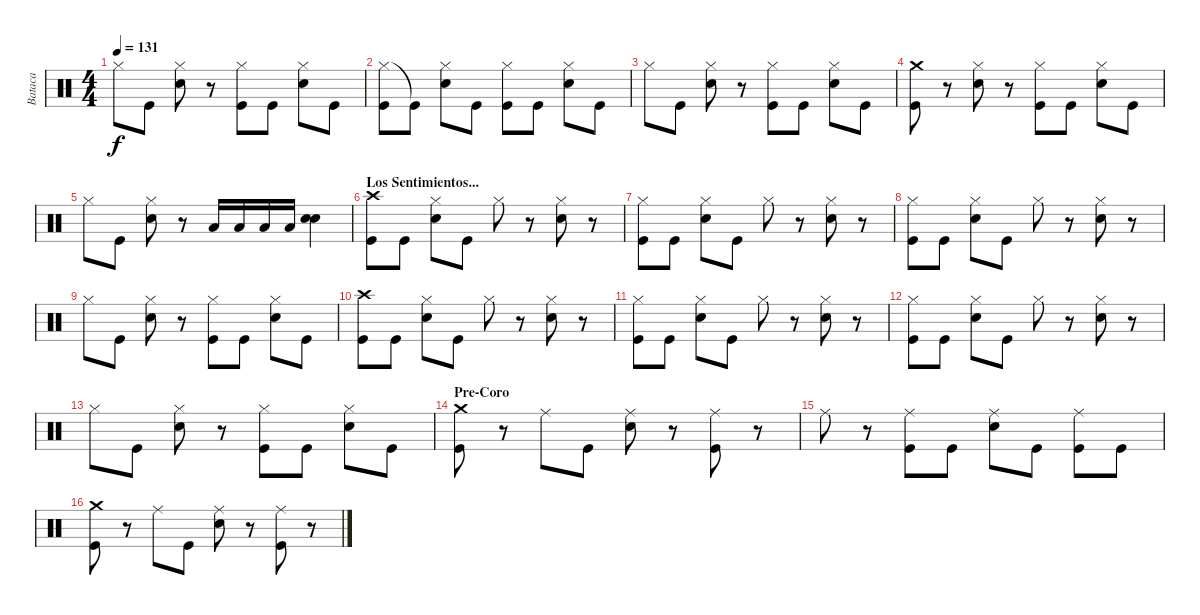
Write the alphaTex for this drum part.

\track ("Bataca" "Bataca") {instrument percussion}
\staff {score}
\articulation defaults
\ts (4 4)
\tempo 131
\clef neutral
\ks c "Hi-Hat (closed)".8{dy f} "Kick (hit)".8
("Hi-Hat (closed)" "Snare (hit) 2").8 r.8 ("Hi-Hat (closed)" "Kick (hit)").8 "Kick (hit)".8 ("Hi-Hat (closed)" "Snare (hit) 2").8 "Kick (hit)".8 |
("Hi-Hat (closed)" "Kick (hit)").8 "Kick (hit)"{t}.8 ("Hi-Hat (closed)" "Snare (hit) 2").8 "Kick (hit)".8 ("Hi-Hat (closed)" "Kick (hit)").8 "Kick (hit)".8 ("Hi-Hat (closed)" "Snare (hit) 2").8 "Kick (hit)".8 |
"Hi-Hat (closed)".8 "Kick (hit)".8 ("Hi-Hat (closed)" "Snare (hit) 2").8 r.8 ("Hi-Hat (closed)" "Kick (hit)").8 "Kick (hit)".8 ("Hi-Hat (closed)" "Snare (hit) 2").8 "Kick (hit)".8 |
("Crash medium (hit)" "Kick (hit)").8 r.8 ("Hi-Hat (closed)" "Snare (hit) 2").8 r.8 ("Hi-Hat (closed)" "Kick (hit)").8 "Kick (hit)".8 ("Hi-Hat (closed)" "Snare (hit) 2").8 "Kick (hit)".8 |
"Hi-Hat (closed)".8 "Kick (hit)".8 ("Hi-Hat (closed)" "Snare (hit) 2").8 r.8 "Low Tom (hit)".16 "Low Tom (hit)".16 "Low Tom (hit)".16 "Low Tom (hit)".16 ("Snare (hit) 2" "Snare (hit) 2").4{bd 60} |
\section ("" "Los Sentimientos...")
("Crash high (hit)" "Kick (hit)").8 "Kick (hit)".8 ("Hi-Hat (closed)" "Snare (hit) 2").8 "Kick (hit)".8 "Hi-Hat (closed)".8 r.8 ("Hi-Hat (closed)" "Snare (hit) 2").8 r.8 |
("Hi-Hat (closed)" "Kick (hit)").8 "Kick (hit)".8 ("Hi-Hat (closed)" "Snare (hit) 2").8 "Kick (hit)".8 "Hi-Hat (closed)".8 r.8 ("Hi-Hat (closed)" "Snare (hit) 2").8 r.8 |
("Hi-Hat (closed)" "Kick (hit)").8 "Kick (hit)".8 ("Hi-Hat (closed)" "Snare (hit) 2").8 "Kick (hit)".8 "Hi-Hat (closed)".8 r.8 ("Hi-Hat (closed)" "Snare (hit) 2").8 r.8 |
"Hi-Hat (closed)".8 "Kick (hit)".8 ("Hi-Hat (closed)" "Snare (hit) 2").8 r.8 ("Hi-Hat (closed)" "Kick (hit)").8 "Kick (hit)".8 ("Hi-Hat (closed)" "Snare (hit) 2").8 "Kick (hit)".8 |
("Crash high (hit)" "Kick (hit)").8 "Kick (hit)".8 ("Hi-Hat (closed)" "Snare (hit) 2").8 "Kick (hit)".8 "Hi-Hat (closed)".8 r.8 ("Hi-Hat (closed)" "Snare (hit) 2").8 r.8 |
("Hi-Hat (closed)" "Kick (hit)").8 "Kick (hit)".8 ("Hi-Hat (closed)" "Snare (hit) 2").8 "Kick (hit)".8 "Hi-Hat (closed)".8 r.8 ("Hi-Hat (closed)" "Snare (hit) 2").8 r.8 |
("Hi-Hat (closed)" "Kick (hit)").8 "Kick (hit)".8 ("Hi-Hat (closed)" "Snare (hit) 2").8 "Kick (hit)".8 "Hi-Hat (closed)".8 r.8 ("Hi-Hat (closed)" "Snare (hit) 2").8 r.8 |
"Hi-Hat (closed)".8 "Kick (hit)".8 ("Hi-Hat (closed)" "Snare (hit) 2").8 r.8 ("Hi-Hat (closed)" "Kick (hit)").8 "Kick (hit)".8 ("Hi-Hat (closed)" "Snare (hit) 2").8 "Kick (hit)".8 |
\section ("" "Pre-Coro")
("Crash medium (hit)" "Kick (hit)").8 r.8 "Ride (middle)".8 "Kick (hit)".8 ("Ride (middle)" "Snare (hit) 2").8 r.8 ("Ride (middle)" "Kick (hit)").8 r.8 |
"Ride (middle)".8 r.8 ("Ride (middle)" "Kick (hit)").8 "Kick (hit)".8 ("Ride (middle)" "Snare (hit) 2").8 "Kick (hit)".8 ("Ride (middle)" "Kick (hit)").8 "Kick (hit)".8 |
("Crash medium (hit)" "Kick (hit)").8 r.8 "Ride (middle)".8 "Kick (hit)".8 ("Ride (middle)" "Snare (hit) 2").8 r.8 ("Ride (middle)" "Kick (hit)").8 r.8
